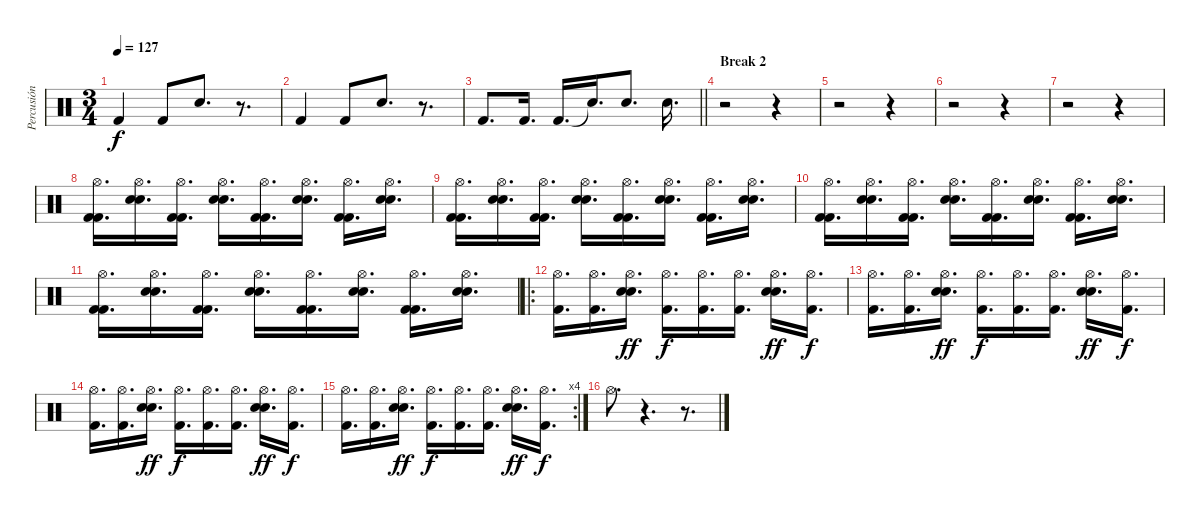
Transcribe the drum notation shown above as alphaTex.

\track ("Percusión" "Percusión") {instrument percussion}
\staff {score}
\articulation defaults
\ts (3 4)
\tempo 127
\clef neutral
\ks c "Kick (hit) 2".4{dy f} "Kick (hit) 2".8 "Snare (hit) 2".8{d}
r.8{d} |
"Kick (hit) 2".4 "Kick (hit) 2".8 "Snare (hit) 2".8{d} r.8{d} |
\barLineRight lightlight "Kick (hit) 2".8{d} "Kick (hit) 2".16{d} "Kick (hit) 2".16{d} "Snare (hit) 2"{t}.16{d} "Snare (hit) 2".8{d} "Snare (hit) 2".16{d}
|
\section ("" "Break 2")
r.2 r.4 |
r.2 r.4 |
r.2 r.4 |
r.2 r.4 |
("Hi-Hat (open)" "Kick (hit) 2" "Kick (hit) 2").16{d volume 13} ("Hi-Hat (open)" "Snare (hit) 2" "Snare (hit) 2").16{d} ("Hi-Hat (open)" "Kick (hit) 2" "Kick (hit) 2").16{d} ("Hi-Hat (open)" "Snare (hit) 2" "Snare (hit) 2").16{d} ("Hi-Hat (open)" "Kick (hit) 2" "Kick (hit) 2").16{d} ("Hi-Hat (open)" "Snare (hit) 2" "Snare (hit) 2").16{d} ("Hi-Hat (open)" "Kick (hit) 2" "Kick (hit) 2").16{d} ("Hi-Hat (open)" "Snare (hit) 2" "Snare (hit) 2").16{d} |
("Hi-Hat (open)" "Kick (hit) 2" "Kick (hit) 2").16{d} ("Hi-Hat (open)" "Snare (hit) 2" "Snare (hit) 2").16{d} ("Hi-Hat (open)" "Kick (hit) 2" "Kick (hit) 2").16{d} ("Hi-Hat (open)" "Snare (hit) 2" "Snare (hit) 2").16{d} ("Hi-Hat (open)" "Kick (hit) 2" "Kick (hit) 2").16{d} ("Hi-Hat (open)" "Snare (hit) 2" "Snare (hit) 2").16{d} ("Hi-Hat (open)" "Kick (hit) 2" "Kick (hit) 2").16{d} ("Hi-Hat (open)" "Snare (hit) 2" "Snare (hit) 2").16{d} |
("Hi-Hat (open)" "Kick (hit) 2" "Kick (hit) 2").16{d volume 13} ("Hi-Hat (open)" "Snare (hit) 2" "Snare (hit) 2").16{d} ("Hi-Hat (open)" "Kick (hit) 2" "Kick (hit) 2").16{d} ("Hi-Hat (open)" "Snare (hit) 2" "Snare (hit) 2").16{d} ("Hi-Hat (open)" "Kick (hit) 2" "Kick (hit) 2").16{d} ("Hi-Hat (open)" "Snare (hit) 2" "Snare (hit) 2").16{d} ("Hi-Hat (open)" "Kick (hit) 2" "Kick (hit) 2").16{d} ("Hi-Hat (open)" "Snare (hit) 2" "Snare (hit) 2").16{d} |
("Hi-Hat (open)" "Kick (hit) 2" "Kick (hit) 2").16{d} ("Hi-Hat (open)" "Snare (hit) 2" "Snare (hit) 2").16{d} ("Hi-Hat (open)" "Kick (hit) 2" "Kick (hit) 2").16{d} ("Hi-Hat (open)" "Snare (hit) 2" "Snare (hit) 2").16{d} ("Hi-Hat (open)" "Kick (hit) 2" "Kick (hit) 2").16{d} ("Hi-Hat (open)" "Snare (hit) 2" "Snare (hit) 2").16{d} ("Hi-Hat (open)" "Kick (hit) 2" "Kick (hit) 2").16{d} ("Hi-Hat (open)" "Snare (hit) 2" "Snare (hit) 2").16{d} |
\ro
("Hi-Hat (open)" "Kick (hit) 2").16{d} ("Hi-Hat (open)" "Kick (hit) 2").16{d} ("Hi-Hat (open)" "Snare (hit) 2" "Snare (hit) 2").16{d dy ff} ("Hi-Hat (open)" "Kick (hit) 2").16{d dy f} ("Hi-Hat (open)" "Kick (hit) 2").16{d} ("Hi-Hat (open)" "Kick (hit) 2").16{d} ("Hi-Hat (open)" "Snare (hit) 2" "Snare (hit) 2").16{d dy ff} ("Hi-Hat (open)" "Kick (hit) 2").16{d dy f} |
("Hi-Hat (open)" "Kick (hit) 2").16{d} ("Hi-Hat (open)" "Kick (hit) 2").16{d} ("Hi-Hat (open)" "Snare (hit) 2" "Snare (hit) 2").16{d dy ff} ("Hi-Hat (open)" "Kick (hit) 2").16{d dy f} ("Hi-Hat (open)" "Kick (hit) 2").16{d} ("Hi-Hat (open)" "Kick (hit) 2").16{d} ("Hi-Hat (open)" "Snare (hit) 2" "Snare (hit) 2").16{d dy ff} ("Hi-Hat (open)" "Kick (hit) 2").16{d dy f} |
("Hi-Hat (open)" "Kick (hit) 2").16{d} ("Hi-Hat (open)" "Kick (hit) 2").16{d} ("Hi-Hat (open)" "Snare (hit) 2" "Snare (hit) 2").16{d dy ff} ("Hi-Hat (open)" "Kick (hit) 2").16{d dy f} ("Hi-Hat (open)" "Kick (hit) 2").16{d} ("Hi-Hat (open)" "Kick (hit) 2").16{d} ("Hi-Hat (open)" "Snare (hit) 2" "Snare (hit) 2").16{d dy ff} ("Hi-Hat (open)" "Kick (hit) 2").16{d dy f} |
\rc 4
("Hi-Hat (open)" "Kick (hit) 2").16{d} ("Hi-Hat (open)" "Kick (hit) 2").16{d} ("Hi-Hat (open)" "Snare (hit) 2" "Snare (hit) 2").16{d dy ff} ("Hi-Hat (open)" "Kick (hit) 2").16{d dy f} ("Hi-Hat (open)" "Kick (hit) 2").16{d} ("Hi-Hat (open)" "Kick (hit) 2").16{d} ("Hi-Hat (open)" "Snare (hit) 2" "Snare (hit) 2").16{d dy ff} ("Hi-Hat (open)" "Kick (hit) 2").16{d dy f} |
"Hi-Hat (open)".8{d} r.4{d} r.8{d}
